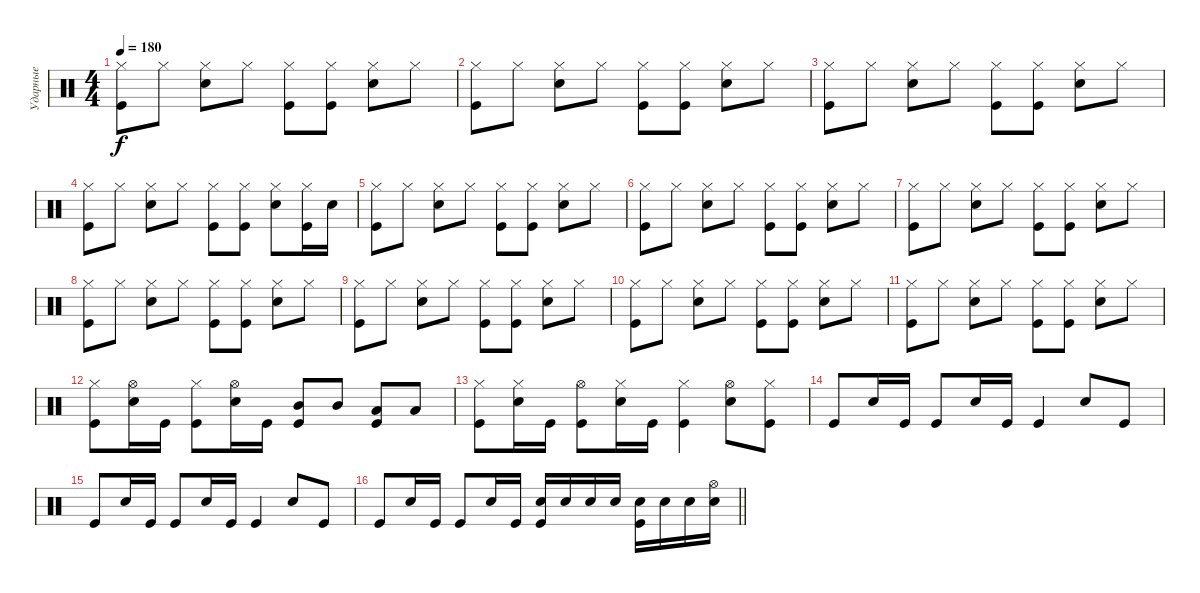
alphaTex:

\track ("Ударные" "Ударные") {instrument percussion}
\staff {score}
\articulation defaults
\ts (4 4)
\tempo 180
\clef neutral
\ks c
("Hi-Hat (closed)" "Kick (hit)").8{dy f} "Hi-Hat (closed)".8 ("Hi-Hat (closed)" "Snare (hit) 2").8 "Hi-Hat (closed)".8 ("Hi-Hat (closed)" "Kick (hit)").8 ("Hi-Hat (closed)" "Kick (hit)").8 ("Hi-Hat (closed)" "Snare (hit) 2").8 "Hi-Hat (closed)".8 |
("Hi-Hat (closed)" "Kick (hit)").8 "Hi-Hat (closed)".8 ("Hi-Hat (closed)" "Snare (hit) 2").8 "Hi-Hat (closed)".8 ("Hi-Hat (closed)" "Kick (hit)").8 ("Hi-Hat (closed)" "Kick (hit)").8 ("Hi-Hat (closed)" "Snare (hit) 2").8 "Hi-Hat (closed)".8 |
("Hi-Hat (closed)" "Kick (hit)").8 "Hi-Hat (closed)".8 ("Hi-Hat (closed)" "Snare (hit) 2").8 "Hi-Hat (closed)".8 ("Hi-Hat (closed)" "Kick (hit)").8 ("Hi-Hat (closed)" "Kick (hit)").8 ("Hi-Hat (closed)" "Snare (hit) 2").8 "Hi-Hat (closed)".8 |
("Hi-Hat (closed)" "Kick (hit)").8 "Hi-Hat (closed)".8 ("Hi-Hat (closed)" "Snare (hit) 2").8 "Hi-Hat (closed)".8 ("Hi-Hat (closed)" "Kick (hit)").8 ("Hi-Hat (closed)" "Kick (hit)").8 ("Hi-Hat (closed)" "Snare (hit) 2").8 ("Hi-Hat (closed)" "Kick (hit)").16 "Snare (hit) 2".16 |
("Hi-Hat (closed)" "Kick (hit)").8 "Hi-Hat (closed)".8 ("Hi-Hat (closed)" "Snare (hit) 2").8 "Hi-Hat (closed)".8 ("Hi-Hat (closed)" "Kick (hit)").8 ("Hi-Hat (closed)" "Kick (hit)").8 ("Hi-Hat (closed)" "Snare (hit) 2").8 "Hi-Hat (closed)".8 |
("Hi-Hat (closed)" "Kick (hit)").8 "Hi-Hat (closed)".8 ("Hi-Hat (closed)" "Snare (hit) 2").8 "Hi-Hat (closed)".8 ("Hi-Hat (closed)" "Kick (hit)").8 ("Hi-Hat (closed)" "Kick (hit)").8 ("Hi-Hat (closed)" "Snare (hit) 2").8 "Hi-Hat (closed)".8 |
("Hi-Hat (closed)" "Kick (hit)").8 "Hi-Hat (closed)".8 ("Hi-Hat (closed)" "Snare (hit) 2").8 "Hi-Hat (closed)".8 ("Hi-Hat (closed)" "Kick (hit)").8 ("Hi-Hat (closed)" "Kick (hit)").8 ("Hi-Hat (closed)" "Snare (hit) 2").8 "Hi-Hat (closed)".8 |
("Hi-Hat (closed)" "Kick (hit)").8 "Hi-Hat (closed)".8 ("Hi-Hat (closed)" "Snare (hit) 2").8 "Hi-Hat (closed)".8 ("Hi-Hat (closed)" "Kick (hit)").8 ("Hi-Hat (closed)" "Kick (hit)").8 ("Hi-Hat (closed)" "Snare (hit) 2").8 "Hi-Hat (closed)".8 |
("Hi-Hat (closed)" "Kick (hit)").8 "Hi-Hat (closed)".8 ("Hi-Hat (closed)" "Snare (hit) 2").8 "Hi-Hat (closed)".8 ("Hi-Hat (closed)" "Kick (hit)").8 ("Hi-Hat (closed)" "Kick (hit)").8 ("Hi-Hat (closed)" "Snare (hit) 2").8 "Hi-Hat (closed)".8 |
("Hi-Hat (closed)" "Kick (hit)").8 "Hi-Hat (closed)".8 ("Hi-Hat (closed)" "Snare (hit) 2").8 "Hi-Hat (closed)".8 ("Hi-Hat (closed)" "Kick (hit)").8 ("Hi-Hat (closed)" "Kick (hit)").8 ("Hi-Hat (closed)" "Snare (hit) 2").8 "Hi-Hat (closed)".8 |
("Hi-Hat (closed)" "Kick (hit)").8 "Hi-Hat (closed)".8 ("Hi-Hat (closed)" "Snare (hit) 2").8 "Hi-Hat (closed)".8 ("Hi-Hat (closed)" "Kick (hit)").8 ("Hi-Hat (closed)" "Kick (hit)").8 ("Hi-Hat (closed)" "Snare (hit) 2").8 "Hi-Hat (closed)".8 |
("Kick (hit)" "Hi-Hat (closed)").8 ("Snare (hit) 2" "Hi-Hat (open)").16 "Kick (hit)".16 ("Hi-Hat (closed)" "Kick (hit)").8 ("Snare (hit) 2" "Hi-Hat (open)").16 "Kick (hit)".16 ("Mid Tom (hit)" "Kick (hit)").8 "Mid Tom (hit)".8 ("Low Tom (hit)" "Kick (hit)").8 "Low Tom (hit)".8 |
("Hi-Hat (closed)" "Kick (hit)").8 ("Snare (hit) 2" "Hi-Hat (closed)").16 "Kick (hit)".16 ("Kick (hit)" "Hi-Hat (open)").8 ("Snare (hit) 2" "Hi-Hat (closed)").16 "Kick (hit)".16 ("Kick (hit)" "Hi-Hat (closed)").4 ("Snare (hit) 2" "Hi-Hat (open)").8 ("Kick (hit)" "Hi-Hat (closed)").8 |
"Kick (hit)".8 "Snare (hit) 2".16 "Kick (hit)".16 "Kick (hit)".8 "Snare (hit) 2".16 "Kick (hit)".16 "Kick (hit)".4 "Snare (hit) 2".8 "Kick (hit)".8 |
"Kick (hit)".8 "Snare (hit) 2".16 "Kick (hit)".16 "Kick (hit)".8 "Snare (hit) 2".16 "Kick (hit)".16 "Kick (hit)".4 "Snare (hit) 2".8 "Kick (hit)".8 |
\barLineRight lightlight "Kick (hit)".8 "Snare (hit) 2".16 "Kick (hit)".16 "Kick (hit)".8 "Snare (hit) 2".16 "Kick (hit)".16
("Snare (hit) 2" "Kick (hit)").16 "Snare (hit) 2".16 "Snare (hit) 2".16 "Snare (hit) 2".16 ("Snare (hit) 2" "Kick (hit)").16 "Snare (hit) 2".16 "Snare (hit) 2".16 ("Snare (hit) 2" "Hi-Hat (open)").16
